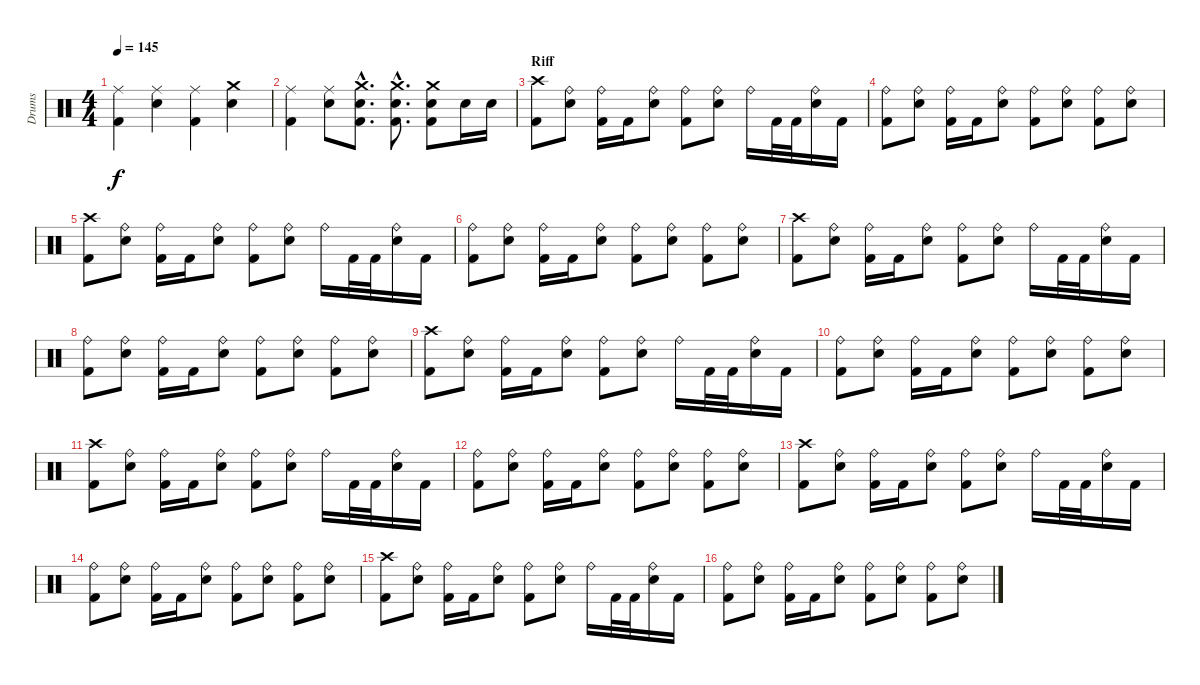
\track ("Drums" "Drums") {instrument percussion}
\staff {score}
\articulation defaults
\ts (4 4)
\tempo 145
\clef neutral
\ks c
("Ride (middle)" "Kick (hit) 2").4{dy f} ("Ride (middle)" "Electric Snare (hit)").4 ("Ride (middle)" "Kick (hit) 2").4 ("Crash medium (hit)" "Electric Snare (hit)").4 |
("Ride (middle)" "Kick (hit) 2").4 ("Ride (middle)" "Electric Snare (hit)").8 ("Crash medium (hit)"{hac} "Electric Snare (hit)"{hac} "Kick (hit) 2"{hac}).8{d} ("Crash medium (hit)"{hac} "Electric Snare (hit)"{hac} "Kick (hit) 2"{hac}).8{d} ("Crash medium (hit)" "Electric Snare (hit)" "Kick (hit) 2").8 "Electric Snare (hit)".16 "Electric Snare (hit)".16 |
\section ("" "Riff")
("Crash high (hit)" "Kick (hit) 2").8 ("Ride (bell)" "Electric Snare (hit)").8 ("Ride (bell)" "Kick (hit) 2").16 "Kick (hit) 2".16 ("Ride (bell)" "Electric Snare (hit)").8 ("Ride (bell)" "Kick (hit) 2").8 ("Ride (bell)" "Electric Snare (hit)").8 "Ride (bell)".16 "Kick (hit) 2".32 "Kick (hit) 2".32 ("Ride (bell)" "Electric Snare (hit)").16 "Kick (hit) 2".16 |
("Ride (bell)" "Kick (hit) 2").8 ("Ride (bell)" "Electric Snare (hit)").8 ("Ride (bell)" "Kick (hit) 2").16 "Kick (hit) 2".16 ("Ride (bell)" "Electric Snare (hit)").8 ("Ride (bell)" "Kick (hit) 2").8 ("Ride (bell)" "Electric Snare (hit)").8 ("Ride (bell)" "Kick (hit) 2").8 ("Ride (bell)" "Electric Snare (hit)").8 |
("Crash high (hit)" "Kick (hit) 2").8 ("Ride (bell)" "Electric Snare (hit)").8 ("Ride (bell)" "Kick (hit) 2").16 "Kick (hit) 2".16 ("Ride (bell)" "Electric Snare (hit)").8 ("Ride (bell)" "Kick (hit) 2").8 ("Ride (bell)" "Electric Snare (hit)").8 "Ride (bell)".16 "Kick (hit) 2".32 "Kick (hit) 2".32 ("Ride (bell)" "Electric Snare (hit)").16 "Kick (hit) 2".16 |
("Ride (bell)" "Kick (hit) 2").8 ("Ride (bell)" "Electric Snare (hit)").8 ("Ride (bell)" "Kick (hit) 2").16 "Kick (hit) 2".16 ("Ride (bell)" "Electric Snare (hit)").8 ("Ride (bell)" "Kick (hit) 2").8 ("Ride (bell)" "Electric Snare (hit)").8 ("Ride (bell)" "Kick (hit) 2").8 ("Ride (bell)" "Electric Snare (hit)").8 |
("Crash high (hit)" "Kick (hit) 2").8 ("Ride (bell)" "Electric Snare (hit)").8 ("Ride (bell)" "Kick (hit) 2").16 "Kick (hit) 2".16 ("Ride (bell)" "Electric Snare (hit)").8 ("Ride (bell)" "Kick (hit) 2").8 ("Ride (bell)" "Electric Snare (hit)").8 "Ride (bell)".16 "Kick (hit) 2".32 "Kick (hit) 2".32 ("Ride (bell)" "Electric Snare (hit)").16 "Kick (hit) 2".16 |
("Ride (bell)" "Kick (hit) 2").8 ("Ride (bell)" "Electric Snare (hit)").8 ("Ride (bell)" "Kick (hit) 2").16 "Kick (hit) 2".16 ("Ride (bell)" "Electric Snare (hit)").8 ("Ride (bell)" "Kick (hit) 2").8 ("Ride (bell)" "Electric Snare (hit)").8 ("Ride (bell)" "Kick (hit) 2").8 ("Ride (bell)" "Electric Snare (hit)").8 |
("Crash high (hit)" "Kick (hit) 2").8 ("Ride (bell)" "Electric Snare (hit)").8 ("Ride (bell)" "Kick (hit) 2").16 "Kick (hit) 2".16 ("Ride (bell)" "Electric Snare (hit)").8 ("Ride (bell)" "Kick (hit) 2").8 ("Ride (bell)" "Electric Snare (hit)").8 "Ride (bell)".16 "Kick (hit) 2".32 "Kick (hit) 2".32 ("Ride (bell)" "Electric Snare (hit)").16 "Kick (hit) 2".16 |
("Ride (bell)" "Kick (hit) 2").8 ("Ride (bell)" "Electric Snare (hit)").8 ("Ride (bell)" "Kick (hit) 2").16 "Kick (hit) 2".16 ("Ride (bell)" "Electric Snare (hit)").8 ("Ride (bell)" "Kick (hit) 2").8 ("Ride (bell)" "Electric Snare (hit)").8 ("Ride (bell)" "Kick (hit) 2").8 ("Ride (bell)" "Electric Snare (hit)").8 |
("Crash high (hit)" "Kick (hit) 2").8 ("Ride (bell)" "Electric Snare (hit)").8 ("Ride (bell)" "Kick (hit) 2").16 "Kick (hit) 2".16 ("Ride (bell)" "Electric Snare (hit)").8 ("Ride (bell)" "Kick (hit) 2").8 ("Ride (bell)" "Electric Snare (hit)").8 "Ride (bell)".16 "Kick (hit) 2".32 "Kick (hit) 2".32 ("Ride (bell)" "Electric Snare (hit)").16 "Kick (hit) 2".16 |
("Ride (bell)" "Kick (hit) 2").8 ("Ride (bell)" "Electric Snare (hit)").8 ("Ride (bell)" "Kick (hit) 2").16 "Kick (hit) 2".16 ("Ride (bell)" "Electric Snare (hit)").8 ("Ride (bell)" "Kick (hit) 2").8 ("Ride (bell)" "Electric Snare (hit)").8 ("Ride (bell)" "Kick (hit) 2").8 ("Ride (bell)" "Electric Snare (hit)").8 |
("Crash high (hit)" "Kick (hit) 2").8 ("Ride (bell)" "Electric Snare (hit)").8 ("Ride (bell)" "Kick (hit) 2").16 "Kick (hit) 2".16 ("Ride (bell)" "Electric Snare (hit)").8 ("Ride (bell)" "Kick (hit) 2").8 ("Ride (bell)" "Electric Snare (hit)").8 "Ride (bell)".16 "Kick (hit) 2".32 "Kick (hit) 2".32 ("Ride (bell)" "Electric Snare (hit)").16 "Kick (hit) 2".16 |
("Ride (bell)" "Kick (hit) 2").8 ("Ride (bell)" "Electric Snare (hit)").8 ("Ride (bell)" "Kick (hit) 2").16 "Kick (hit) 2".16 ("Ride (bell)" "Electric Snare (hit)").8 ("Ride (bell)" "Kick (hit) 2").8 ("Ride (bell)" "Electric Snare (hit)").8 ("Ride (bell)" "Kick (hit) 2").8 ("Ride (bell)" "Electric Snare (hit)").8 |
("Crash high (hit)" "Kick (hit) 2").8 ("Ride (bell)" "Electric Snare (hit)").8 ("Ride (bell)" "Kick (hit) 2").16 "Kick (hit) 2".16 ("Ride (bell)" "Electric Snare (hit)").8 ("Ride (bell)" "Kick (hit) 2").8 ("Ride (bell)" "Electric Snare (hit)").8 "Ride (bell)".16 "Kick (hit) 2".32 "Kick (hit) 2".32 ("Ride (bell)" "Electric Snare (hit)").16 "Kick (hit) 2".16 |
("Ride (bell)" "Kick (hit) 2").8 ("Ride (bell)" "Electric Snare (hit)").8 ("Ride (bell)" "Kick (hit) 2").16 "Kick (hit) 2".16 ("Ride (bell)" "Electric Snare (hit)").8 ("Ride (bell)" "Kick (hit) 2").8 ("Ride (bell)" "Electric Snare (hit)").8 ("Ride (bell)" "Kick (hit) 2").8 ("Ride (bell)" "Electric Snare (hit)").8
